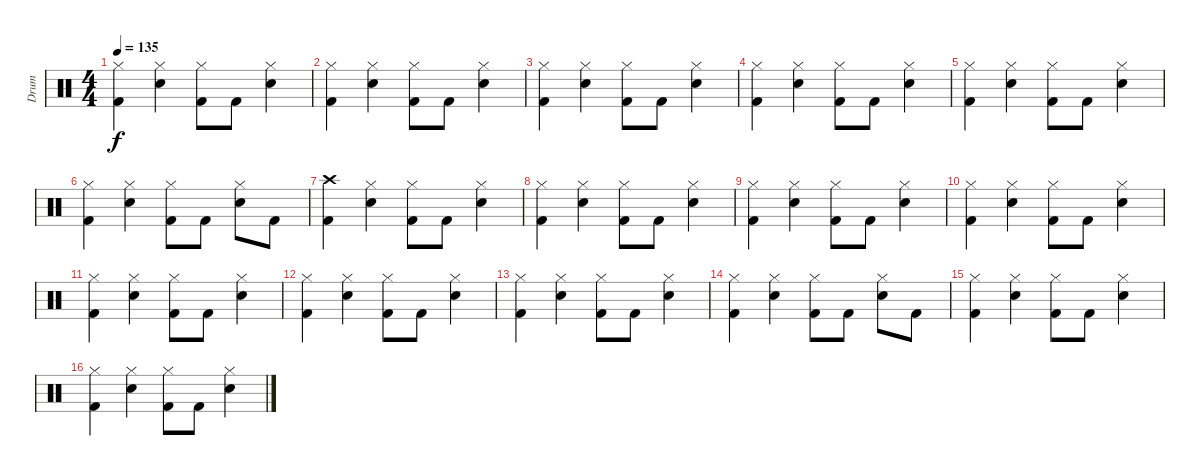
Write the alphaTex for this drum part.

\track ("Drum" "Drum") {instrument percussion}
\staff {score}
\articulation defaults
\ts (4 4)
\tempo 135
\clef neutral
\ks c
("Kick (hit) 2" "Hi-Hat (closed)").4{dy f} ("Snare (hit) 2" "Hi-Hat (closed)").4 ("Kick (hit) 2" "Hi-Hat (closed)").8 "Kick (hit) 2".8 ("Snare (hit) 2" "Hi-Hat (closed)").4 |
("Kick (hit) 2" "Hi-Hat (closed)").4 ("Snare (hit) 2" "Hi-Hat (closed)").4 ("Kick (hit) 2" "Hi-Hat (closed)").8 "Kick (hit) 2".8 ("Snare (hit) 2" "Hi-Hat (closed)").4 |
("Kick (hit) 2" "Hi-Hat (closed)").4 ("Snare (hit) 2" "Hi-Hat (closed)").4 ("Kick (hit) 2" "Hi-Hat (closed)").8 "Kick (hit) 2".8 ("Snare (hit) 2" "Hi-Hat (closed)").4 |
("Kick (hit) 2" "Hi-Hat (closed)").4 ("Snare (hit) 2" "Hi-Hat (closed)").4 ("Kick (hit) 2" "Hi-Hat (closed)").8 "Kick (hit) 2".8 ("Snare (hit) 2" "Hi-Hat (closed)").4 |
("Kick (hit) 2" "Hi-Hat (closed)").4 ("Snare (hit) 2" "Hi-Hat (closed)").4 ("Kick (hit) 2" "Hi-Hat (closed)").8 "Kick (hit) 2".8 ("Snare (hit) 2" "Hi-Hat (closed)").4 |
("Kick (hit) 2" "Hi-Hat (closed)").4 ("Snare (hit) 2" "Hi-Hat (closed)").4 ("Kick (hit) 2" "Hi-Hat (closed)").8 "Kick (hit) 2".8 ("Snare (hit) 2" "Hi-Hat (closed)").8 "Kick (hit) 2".8 |
("Kick (hit) 2" "Crash high (hit)").4 ("Snare (hit) 2" "Hi-Hat (closed)").4 ("Kick (hit) 2" "Hi-Hat (closed)").8 "Kick (hit) 2".8 ("Snare (hit) 2" "Hi-Hat (closed)").4 |
("Kick (hit) 2" "Hi-Hat (closed)").4 ("Snare (hit) 2" "Hi-Hat (closed)").4 ("Kick (hit) 2" "Hi-Hat (closed)").8 "Kick (hit) 2".8 ("Snare (hit) 2" "Hi-Hat (closed)").4 |
("Kick (hit) 2" "Hi-Hat (closed)").4 ("Snare (hit) 2" "Hi-Hat (closed)").4 ("Kick (hit) 2" "Hi-Hat (closed)").8 "Kick (hit) 2".8 ("Snare (hit) 2" "Hi-Hat (closed)").4 |
("Kick (hit) 2" "Hi-Hat (closed)").4 ("Snare (hit) 2" "Hi-Hat (closed)").4 ("Kick (hit) 2" "Hi-Hat (closed)").8 "Kick (hit) 2".8 ("Snare (hit) 2" "Hi-Hat (closed)").4 |
("Kick (hit) 2" "Hi-Hat (closed)").4 ("Snare (hit) 2" "Hi-Hat (closed)").4 ("Kick (hit) 2" "Hi-Hat (closed)").8 "Kick (hit) 2".8 ("Snare (hit) 2" "Hi-Hat (closed)").4 |
("Kick (hit) 2" "Hi-Hat (closed)").4 ("Snare (hit) 2" "Hi-Hat (closed)").4 ("Kick (hit) 2" "Hi-Hat (closed)").8 "Kick (hit) 2".8 ("Snare (hit) 2" "Hi-Hat (closed)").4 |
("Kick (hit) 2" "Hi-Hat (closed)").4 ("Snare (hit) 2" "Hi-Hat (closed)").4 ("Kick (hit) 2" "Hi-Hat (closed)").8 "Kick (hit) 2".8 ("Snare (hit) 2" "Hi-Hat (closed)").4 |
("Kick (hit) 2" "Hi-Hat (closed)").4 ("Snare (hit) 2" "Hi-Hat (closed)").4 ("Kick (hit) 2" "Hi-Hat (closed)").8 "Kick (hit) 2".8 ("Snare (hit) 2" "Hi-Hat (closed)").8 "Kick (hit) 2".8 |
("Kick (hit) 2" "Hi-Hat (closed)").4 ("Snare (hit) 2" "Hi-Hat (closed)").4 ("Kick (hit) 2" "Hi-Hat (closed)").8 "Kick (hit) 2".8 ("Snare (hit) 2" "Hi-Hat (closed)").4 |
("Kick (hit) 2" "Hi-Hat (closed)").4 ("Snare (hit) 2" "Hi-Hat (closed)").4 ("Kick (hit) 2" "Hi-Hat (closed)").8 "Kick (hit) 2".8 ("Snare (hit) 2" "Hi-Hat (closed)").4
